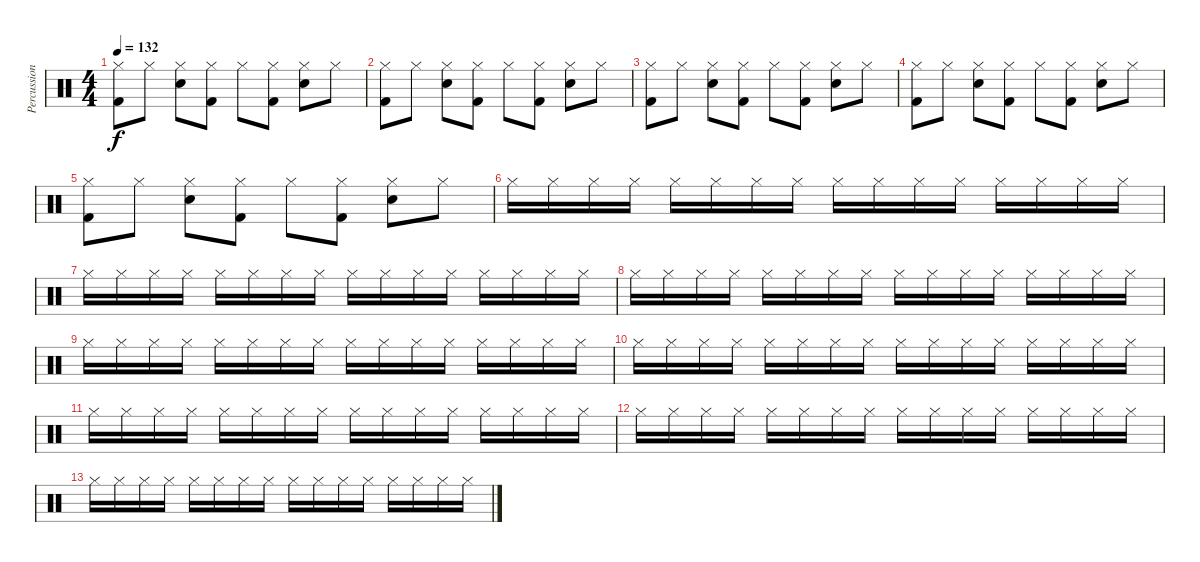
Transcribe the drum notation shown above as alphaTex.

\track ("Percussion" "Percussion") {instrument percussion}
\staff {score}
\articulation defaults
\ts (4 4)
\tempo 132
\clef neutral
\ks c
("Hi-Hat (closed)" "Kick (hit) 2").8{dy f} "Hi-Hat (closed)".8 ("Hi-Hat (closed)" "Snare (hit) 2").8 ("Hi-Hat (closed)" "Kick (hit) 2").8 "Hi-Hat (closed)".8 ("Hi-Hat (closed)" "Kick (hit) 2").8 ("Hi-Hat (closed)" "Snare (hit) 2").8 "Hi-Hat (closed)".8 |
("Hi-Hat (closed)" "Kick (hit) 2").8 "Hi-Hat (closed)".8 ("Hi-Hat (closed)" "Snare (hit) 2").8 ("Hi-Hat (closed)" "Kick (hit) 2").8 "Hi-Hat (closed)".8 ("Hi-Hat (closed)" "Kick (hit) 2").8 ("Hi-Hat (closed)" "Snare (hit) 2").8 "Hi-Hat (closed)".8 |
("Hi-Hat (closed)" "Kick (hit) 2").8 "Hi-Hat (closed)".8 ("Hi-Hat (closed)" "Snare (hit) 2").8 ("Hi-Hat (closed)" "Kick (hit) 2").8 "Hi-Hat (closed)".8 ("Hi-Hat (closed)" "Kick (hit) 2").8 ("Hi-Hat (closed)" "Snare (hit) 2").8 "Hi-Hat (closed)".8 |
("Hi-Hat (closed)" "Kick (hit) 2").8 "Hi-Hat (closed)".8 ("Hi-Hat (closed)" "Snare (hit) 2").8 ("Hi-Hat (closed)" "Kick (hit) 2").8 "Hi-Hat (closed)".8 ("Hi-Hat (closed)" "Kick (hit) 2").8 ("Hi-Hat (closed)" "Snare (hit) 2").8 "Hi-Hat (closed)".8 |
("Hi-Hat (closed)" "Kick (hit) 2").8 "Hi-Hat (closed)".8 ("Hi-Hat (closed)" "Snare (hit) 2").8 ("Hi-Hat (closed)" "Kick (hit) 2").8 "Hi-Hat (closed)".8 ("Hi-Hat (closed)" "Kick (hit) 2").8 ("Hi-Hat (closed)" "Snare (hit) 2").8 "Hi-Hat (closed)".8 |
"Hi-Hat (closed)".16 "Hi-Hat (closed)".16 "Hi-Hat (closed)".16 "Hi-Hat (closed)".16 "Hi-Hat (closed)".16 "Hi-Hat (closed)".16 "Hi-Hat (closed)".16 "Hi-Hat (closed)".16 "Hi-Hat (closed)".16 "Hi-Hat (closed)".16 "Hi-Hat (closed)".16 "Hi-Hat (closed)".16 "Hi-Hat (closed)".16 "Hi-Hat (closed)".16 "Hi-Hat (closed)".16 "Hi-Hat (closed)".16 |
"Hi-Hat (closed)".16 "Hi-Hat (closed)".16 "Hi-Hat (closed)".16 "Hi-Hat (closed)".16 "Hi-Hat (closed)".16 "Hi-Hat (closed)".16 "Hi-Hat (closed)".16 "Hi-Hat (closed)".16 "Hi-Hat (closed)".16 "Hi-Hat (closed)".16 "Hi-Hat (closed)".16 "Hi-Hat (closed)".16 "Hi-Hat (closed)".16 "Hi-Hat (closed)".16 "Hi-Hat (closed)".16 "Hi-Hat (closed)".16 |
"Hi-Hat (closed)".16 "Hi-Hat (closed)".16 "Hi-Hat (closed)".16 "Hi-Hat (closed)".16 "Hi-Hat (closed)".16 "Hi-Hat (closed)".16 "Hi-Hat (closed)".16 "Hi-Hat (closed)".16 "Hi-Hat (closed)".16 "Hi-Hat (closed)".16 "Hi-Hat (closed)".16 "Hi-Hat (closed)".16 "Hi-Hat (closed)".16 "Hi-Hat (closed)".16 "Hi-Hat (closed)".16 "Hi-Hat (closed)".16 |
"Hi-Hat (closed)".16 "Hi-Hat (closed)".16 "Hi-Hat (closed)".16 "Hi-Hat (closed)".16 "Hi-Hat (closed)".16 "Hi-Hat (closed)".16 "Hi-Hat (closed)".16 "Hi-Hat (closed)".16 "Hi-Hat (closed)".16 "Hi-Hat (closed)".16 "Hi-Hat (closed)".16 "Hi-Hat (closed)".16 "Hi-Hat (closed)".16 "Hi-Hat (closed)".16 "Hi-Hat (closed)".16 "Hi-Hat (closed)".16 |
"Hi-Hat (closed)".16 "Hi-Hat (closed)".16 "Hi-Hat (closed)".16 "Hi-Hat (closed)".16 "Hi-Hat (closed)".16 "Hi-Hat (closed)".16 "Hi-Hat (closed)".16 "Hi-Hat (closed)".16 "Hi-Hat (closed)".16 "Hi-Hat (closed)".16 "Hi-Hat (closed)".16 "Hi-Hat (closed)".16 "Hi-Hat (closed)".16 "Hi-Hat (closed)".16 "Hi-Hat (closed)".16 "Hi-Hat (closed)".16 |
"Hi-Hat (closed)".16 "Hi-Hat (closed)".16 "Hi-Hat (closed)".16 "Hi-Hat (closed)".16 "Hi-Hat (closed)".16 "Hi-Hat (closed)".16 "Hi-Hat (closed)".16 "Hi-Hat (closed)".16 "Hi-Hat (closed)".16 "Hi-Hat (closed)".16 "Hi-Hat (closed)".16 "Hi-Hat (closed)".16 "Hi-Hat (closed)".16 "Hi-Hat (closed)".16 "Hi-Hat (closed)".16 "Hi-Hat (closed)".16 |
"Hi-Hat (closed)".16 "Hi-Hat (closed)".16 "Hi-Hat (closed)".16 "Hi-Hat (closed)".16 "Hi-Hat (closed)".16 "Hi-Hat (closed)".16 "Hi-Hat (closed)".16 "Hi-Hat (closed)".16 "Hi-Hat (closed)".16 "Hi-Hat (closed)".16 "Hi-Hat (closed)".16 "Hi-Hat (closed)".16 "Hi-Hat (closed)".16 "Hi-Hat (closed)".16 "Hi-Hat (closed)".16 "Hi-Hat (closed)".16 |
"Hi-Hat (closed)".16 "Hi-Hat (closed)".16 "Hi-Hat (closed)".16 "Hi-Hat (closed)".16 "Hi-Hat (closed)".16 "Hi-Hat (closed)".16 "Hi-Hat (closed)".16 "Hi-Hat (closed)".16 "Hi-Hat (closed)".16 "Hi-Hat (closed)".16 "Hi-Hat (closed)".16 "Hi-Hat (closed)".16 "Hi-Hat (closed)".16 "Hi-Hat (closed)".16 "Hi-Hat (closed)".16 "Hi-Hat (closed)".16
